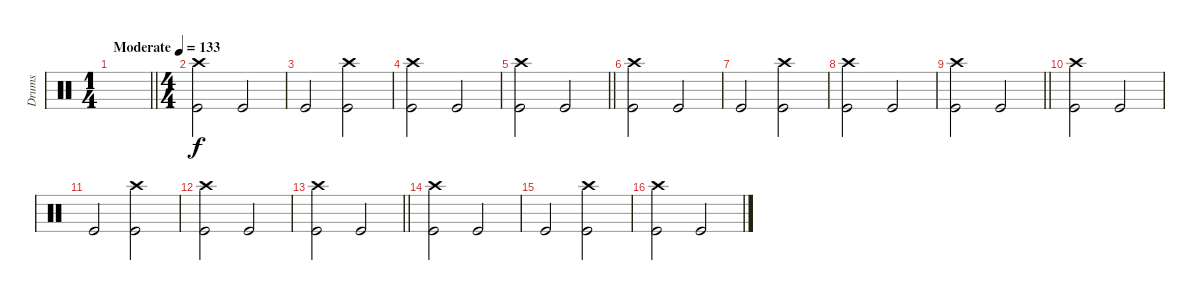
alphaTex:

\track ("Drums" "Drums") {instrument percussion}
\staff
\articulation defaults
\ts (1 4)
\tempo (133 "Moderate")
\clef neutral
\barLineRight lightlight
\ks c
|
\ts (4 4)
("Crash high (hit)" "Kick (hit)").2 "Kick (hit)".2 |
"Kick (hit)".2 ("Crash high (hit)" "Kick (hit)").2 |
("Crash high (hit)" "Kick (hit)").2 "Kick (hit)".2 |
\barLineRight lightlight
("Crash high (hit)" "Kick (hit)").2 "Kick (hit)".2 |
("Crash high (hit)" "Kick (hit)").2 "Kick (hit)".2 |
"Kick (hit)".2 ("Crash high (hit)" "Kick (hit)").2 |
("Crash high (hit)" "Kick (hit)").2 "Kick (hit)".2 |
\barLineRight lightlight
("Crash high (hit)" "Kick (hit)").2 "Kick (hit)".2 |
("Crash high (hit)" "Kick (hit)").2 "Kick (hit)".2 |
"Kick (hit)".2 ("Crash high (hit)" "Kick (hit)").2 |
("Crash high (hit)" "Kick (hit)").2 "Kick (hit)".2 |
\barLineRight lightlight
("Crash high (hit)" "Kick (hit)").2 "Kick (hit)".2 |
("Crash high (hit)" "Kick (hit)").2 "Kick (hit)".2 |
"Kick (hit)".2 ("Crash high (hit)" "Kick (hit)").2 |
("Crash high (hit)" "Kick (hit)").2 "Kick (hit)".2
